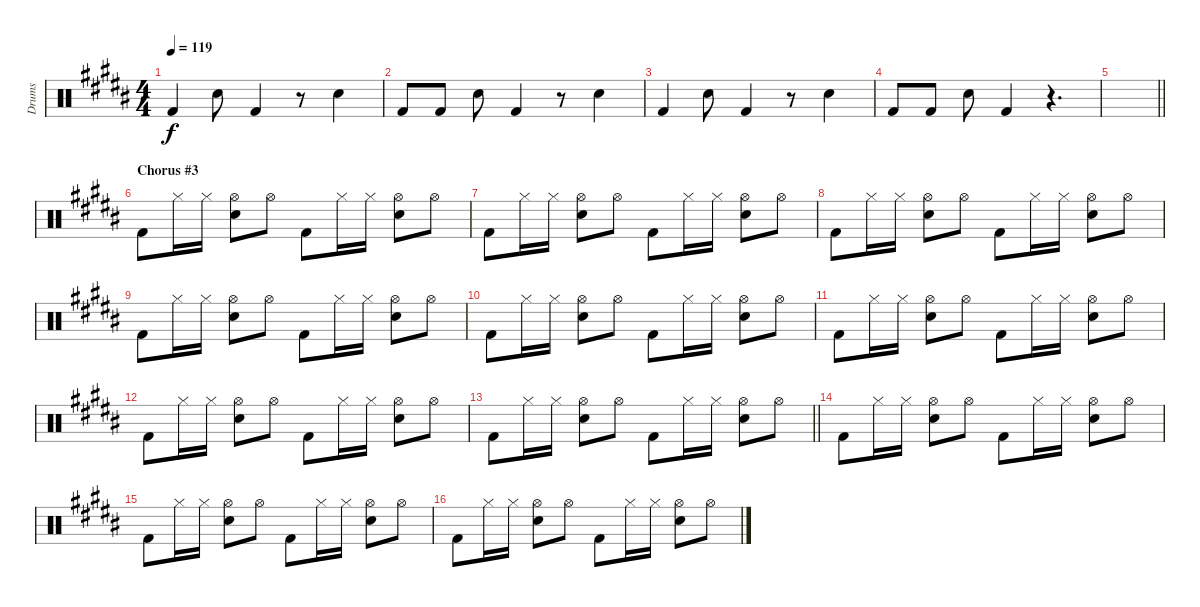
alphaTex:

\track ("Drums" "Drums") {instrument percussion}
\staff {score}
\articulation defaults
\ts (4 4)
\tempo 119
\clef neutral
\ks b "Kick (hit) 2".4{dy f} "Hand Clap (hit)".8 "Kick (hit) 2".4
r.8 "Hand Clap (hit)".4 |
"Kick (hit) 2".8 "Kick (hit) 2".8 "Hand Clap (hit)".8 "Kick (hit) 2".4 r.8 "Hand Clap (hit)".4 |
"Kick (hit) 2".4 "Hand Clap (hit)".8 "Kick (hit) 2".4 r.8 "Hand Clap (hit)".4 |
"Kick (hit) 2".8 "Kick (hit) 2".8 "Hand Clap (hit)".8 "Kick (hit) 2".4 r.4{d} |
\barLineRight lightlight
|
\section ("" "Chorus #3")
"Kick (hit) 2".8 "Hi-Hat (closed)".16 "Hi-Hat (closed)".16 ("Snare (hit) 2" "Hi-Hat (open)").8 "Hi-Hat (open)".8 "Kick (hit) 2".8 "Hi-Hat (closed)".16 "Hi-Hat (closed)".16 ("Snare (hit) 2" "Hi-Hat (open)").8 "Hi-Hat (open)".8 |
"Kick (hit) 2".8 "Hi-Hat (closed)".16 "Hi-Hat (closed)".16 ("Snare (hit) 2" "Hi-Hat (open)").8 "Hi-Hat (open)".8 "Kick (hit) 2".8 "Hi-Hat (closed)".16 "Hi-Hat (closed)".16 ("Snare (hit) 2" "Hi-Hat (open)").8 "Hi-Hat (open)".8 |
"Kick (hit) 2".8 "Hi-Hat (closed)".16 "Hi-Hat (closed)".16 ("Snare (hit) 2" "Hi-Hat (open)").8 "Hi-Hat (open)".8 "Kick (hit) 2".8 "Hi-Hat (closed)".16 "Hi-Hat (closed)".16 ("Snare (hit) 2" "Hi-Hat (open)").8 "Hi-Hat (open)".8 |
"Kick (hit) 2".8 "Hi-Hat (closed)".16 "Hi-Hat (closed)".16 ("Snare (hit) 2" "Hi-Hat (open)").8 "Hi-Hat (open)".8 "Kick (hit) 2".8 "Hi-Hat (closed)".16 "Hi-Hat (closed)".16 ("Snare (hit) 2" "Hi-Hat (open)").8 "Hi-Hat (open)".8 |
"Kick (hit) 2".8 "Hi-Hat (closed)".16 "Hi-Hat (closed)".16 ("Snare (hit) 2" "Hi-Hat (open)").8 "Hi-Hat (open)".8 "Kick (hit) 2".8 "Hi-Hat (closed)".16 "Hi-Hat (closed)".16 ("Snare (hit) 2" "Hi-Hat (open)").8 "Hi-Hat (open)".8 |
"Kick (hit) 2".8 "Hi-Hat (closed)".16 "Hi-Hat (closed)".16 ("Snare (hit) 2" "Hi-Hat (open)").8 "Hi-Hat (open)".8 "Kick (hit) 2".8 "Hi-Hat (closed)".16 "Hi-Hat (closed)".16 ("Snare (hit) 2" "Hi-Hat (open)").8 "Hi-Hat (open)".8 |
"Kick (hit) 2".8 "Hi-Hat (closed)".16 "Hi-Hat (closed)".16 ("Snare (hit) 2" "Hi-Hat (open)").8 "Hi-Hat (open)".8 "Kick (hit) 2".8 "Hi-Hat (closed)".16 "Hi-Hat (closed)".16 ("Snare (hit) 2" "Hi-Hat (open)").8 "Hi-Hat (open)".8 |
\barLineRight lightlight "Kick (hit) 2".8 "Hi-Hat (closed)".16 "Hi-Hat (closed)".16
("Snare (hit) 2" "Hi-Hat (open)").8 "Hi-Hat (open)".8 "Kick (hit) 2".8 "Hi-Hat (closed)".16 "Hi-Hat (closed)".16 ("Snare (hit) 2" "Hi-Hat (open)").8 "Hi-Hat (open)".8 |
"Kick (hit) 2".8 "Hi-Hat (closed)".16 "Hi-Hat (closed)".16 ("Snare (hit) 2" "Hi-Hat (open)").8 "Hi-Hat (open)".8 "Kick (hit) 2".8 "Hi-Hat (closed)".16 "Hi-Hat (closed)".16 ("Snare (hit) 2" "Hi-Hat (open)").8 "Hi-Hat (open)".8 |
"Kick (hit) 2".8 "Hi-Hat (closed)".16 "Hi-Hat (closed)".16 ("Snare (hit) 2" "Hi-Hat (open)").8 "Hi-Hat (open)".8 "Kick (hit) 2".8 "Hi-Hat (closed)".16 "Hi-Hat (closed)".16 ("Snare (hit) 2" "Hi-Hat (open)").8 "Hi-Hat (open)".8 |
"Kick (hit) 2".8 "Hi-Hat (closed)".16 "Hi-Hat (closed)".16 ("Snare (hit) 2" "Hi-Hat (open)").8 "Hi-Hat (open)".8 "Kick (hit) 2".8 "Hi-Hat (closed)".16 "Hi-Hat (closed)".16 ("Snare (hit) 2" "Hi-Hat (open)").8 "Hi-Hat (open)".8
